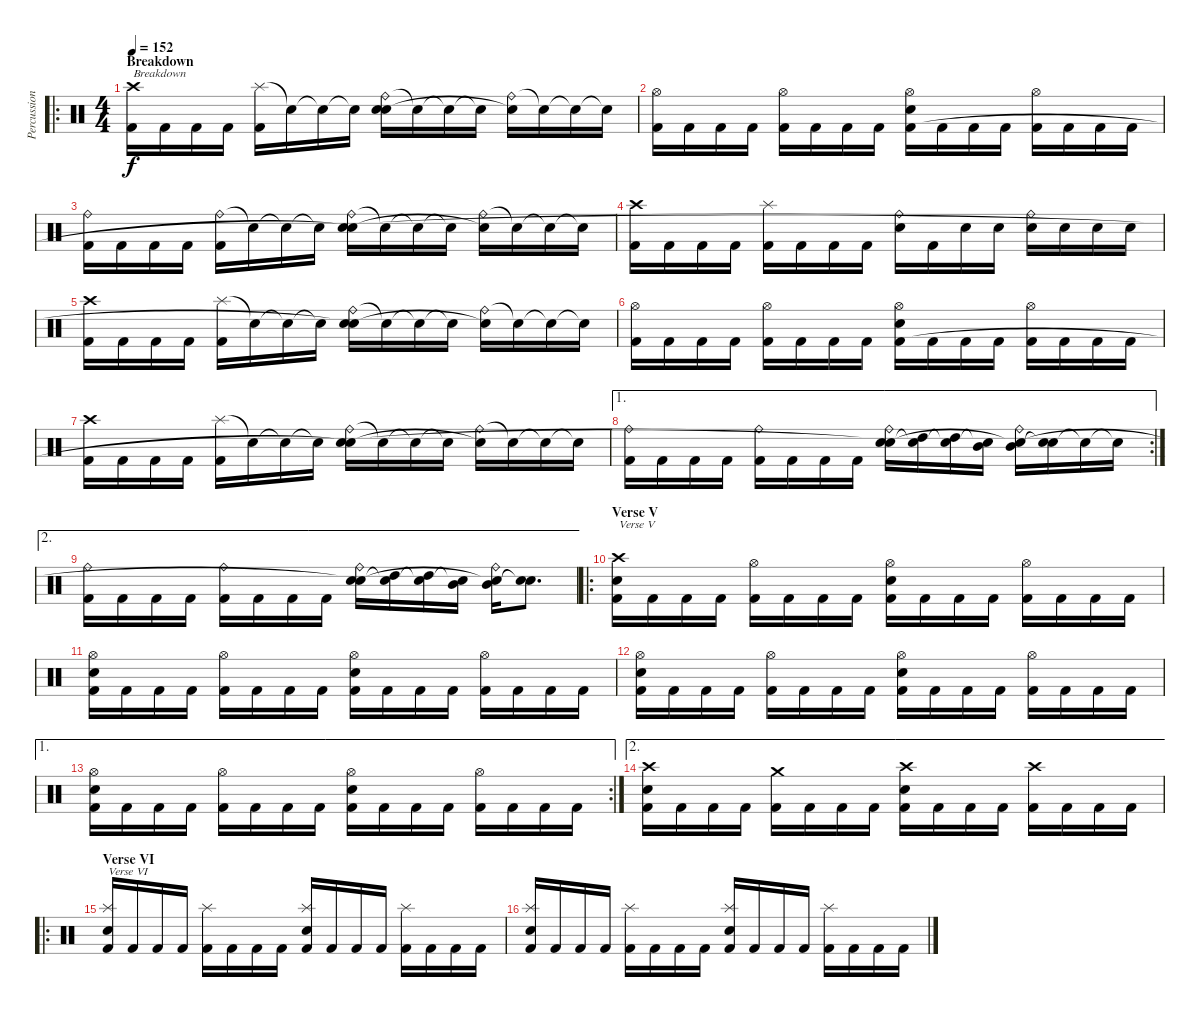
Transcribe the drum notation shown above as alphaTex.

\track ("Percussion" "Percussion") {instrument percussion}
\staff {score}
\articulation defaults
\ro
\ts (4 4)
\section ("" "Breakdown")
\tempo 152
\clef neutral
\ks c
("Crash high (hit)" "Kick (hit) 2").16{txt "Breakdown" dy f} "Kick (hit) 2".16 "Kick (hit) 2".16 "Kick (hit) 2".16 ("Splash (hit)" "Kick (hit) 2").16 "Snare (hit)"{t}.16 "Snare (hit)"{t}.16 "Snare (hit)"{t}.16 ("Ride (bell)" "Electric Snare (hit)" "Snare (hit)"{t}).16 "Snare (hit)"{t}.16 "Snare (hit)"{t}.16 "Snare (hit)"{t}.16 ("Ride (bell)" "Snare (hit)"{t}).16 "Snare (hit)"{t}.16 "Snare (hit)"{t}.16 "Snare (hit)"{t}.16 |
("Hi-Hat (open)" "Kick (hit) 2").16 "Kick (hit) 2".16 "Kick (hit) 2".16 "Kick (hit) 2".16 ("Hi-Hat (open)" "Kick (hit) 2").16 "Kick (hit) 2".16 "Kick (hit) 2".16 "Kick (hit) 2".16 ("Hi-Hat (open)" "Electric Snare (hit)" "Kick (hit) 2").16 "Kick (hit) 2".16 "Kick (hit) 2".16 "Kick (hit) 2".16 ("Hi-Hat (open)" "Kick (hit) 2").16 "Kick (hit) 2".16 "Kick (hit) 2".16 "Kick (hit) 2".16 |
("Ride (bell)" "Kick (hit) 2").16 "Kick (hit) 2".16 "Kick (hit) 2".16 "Kick (hit) 2".16 ("Ride (bell)" "Kick (hit) 2").16 "Snare (hit)"{t}.16 "Snare (hit)"{t}.16 "Snare (hit)"{t}.16 ("Ride (bell)" "Electric Snare (hit)" "Snare (hit)"{t}).16 "Snare (hit)"{t}.16 "Snare (hit)"{t}.16 "Snare (hit)"{t}.16 ("Ride (bell)" "Snare (hit)"{t}).16 "Snare (hit)"{t}.16 "Snare (hit)"{t}.16 "Snare (hit)"{t}.16 |
("Crash high (hit)" "Kick (hit) 2").16 "Kick (hit) 2".16 "Kick (hit) 2".16 "Kick (hit) 2".16 ("Splash (hit)" "Kick (hit) 2").16 "Kick (hit) 2".16 "Kick (hit) 2".16 "Kick (hit) 2".16 ("Ride (bell)" "Electric Snare (hit)").16 "Kick (hit) 2".16 "Electric Snare (hit)".16 "Electric Snare (hit)".16 ("Ride (bell)" "Electric Snare (hit)").16 "Electric Snare (hit)".16 "Electric Snare (hit)".16 "Electric Snare (hit)".16 |
("Crash high (hit)" "Kick (hit) 2").16 "Kick (hit) 2".16 "Kick (hit) 2".16 "Kick (hit) 2".16 ("Splash (hit)" "Kick (hit) 2").16 "Snare (hit)"{t}.16 "Snare (hit)"{t}.16 "Snare (hit)"{t}.16 ("Ride (bell)" "Electric Snare (hit)" "Snare (hit)"{t}).16 "Snare (hit)"{t}.16 "Snare (hit)"{t}.16 "Snare (hit)"{t}.16 ("Ride (bell)" "Snare (hit)"{t}).16 "Snare (hit)"{t}.16 "Snare (hit)"{t}.16 "Snare (hit)"{t}.16 |
("Hi-Hat (open)" "Kick (hit) 2").16 "Kick (hit) 2".16 "Kick (hit) 2".16 "Kick (hit) 2".16 ("Hi-Hat (open)" "Kick (hit) 2").16 "Kick (hit) 2".16 "Kick (hit) 2".16 "Kick (hit) 2".16 ("Hi-Hat (open)" "Electric Snare (hit)" "Kick (hit) 2").16 "Kick (hit) 2".16 "Kick (hit) 2".16 "Kick (hit) 2".16 ("Hi-Hat (open)" "Kick (hit) 2").16 "Kick (hit) 2".16 "Kick (hit) 2".16 "Kick (hit) 2".16 |
("Crash high (hit)" "Kick (hit) 2").16 "Kick (hit) 2".16 "Kick (hit) 2".16 "Kick (hit) 2".16 ("Splash (hit)" "Kick (hit) 2").16 "Snare (hit)"{t}.16 "Snare (hit)"{t}.16 "Snare (hit)"{t}.16 ("Ride (bell)" "Electric Snare (hit)" "Snare (hit)"{t}).16 "Snare (hit)"{t}.16 "Snare (hit)"{t}.16 "Snare (hit)"{t}.16 ("Ride (bell)" "Snare (hit)"{t}).16 "Snare (hit)"{t}.16 "Snare (hit)"{t}.16 "Snare (hit)"{t}.16 |
\ae 1
\rc 2
("Ride (bell)" "Kick (hit) 2").16 "Kick (hit) 2".16 "Kick (hit) 2".16 "Kick (hit) 2".16 ("Ride (bell)" "Kick (hit) 2").16 "Kick (hit) 2".16 "Kick (hit) 2".16 "Kick (hit) 2".16 ("Ride (bell)" "Electric Snare (hit)" "Snare (hit)"{t}).16 ("High Tom (hit)" "Snare (hit)"{t}).16 ("High Tom (hit)" "Snare (hit)"{t}).16 ("Mid Tom (hit)" "Snare (hit)"{t}).16 ("Ride (bell)" "Mid Tom (hit)" "Snare (hit)"{t}).16 ("Electric Snare (hit)" "Snare (hit)"{t}).16 "Snare (hit)"{t}.16 "Snare (hit)"{t}.16 |
\ae 2
("Ride (bell)" "Kick (hit) 2").16 "Kick (hit) 2".16 "Kick (hit) 2".16 "Kick (hit) 2".16 ("Ride (bell)" "Kick (hit) 2").16 "Kick (hit) 2".16 "Kick (hit) 2".16 "Kick (hit) 2".16 ("Ride (bell)" "Electric Snare (hit)" "Snare (hit)"{t}).16 ("High Tom (hit)" "Snare (hit)"{t}).16 ("High Tom (hit)" "Snare (hit)"{t}).16 ("Mid Tom (hit)" "Snare (hit)"{t}).16 ("Ride (bell)" "Mid Tom (hit)" "Snare (hit)"{t}).16 ("Electric Snare (hit)" "Snare (hit)"{t}).8{d} |
\ro
\section ("" "Verse V")
("Crash high (hit)" "Electric Snare (hit)" "Kick (hit) 2").16{txt "Verse V"} "Kick (hit) 2".16 "Kick (hit) 2".16 "Kick (hit) 2".16 ("Hi-Hat (open)" "Kick (hit) 2").16 "Kick (hit) 2".16 "Kick (hit) 2".16 "Kick (hit) 2".16 ("Hi-Hat (open)" "Electric Snare (hit)" "Kick (hit) 2").16 "Kick (hit) 2".16 "Kick (hit) 2".16 "Kick (hit) 2".16 ("Hi-Hat (open)" "Kick (hit) 2").16 "Kick (hit) 2".16 "Kick (hit) 2".16 "Kick (hit) 2".16 |
("Hi-Hat (open)" "Electric Snare (hit)" "Kick (hit) 2").16 "Kick (hit) 2".16 "Kick (hit) 2".16 "Kick (hit) 2".16 ("Hi-Hat (open)" "Kick (hit) 2").16 "Kick (hit) 2".16 "Kick (hit) 2".16 "Kick (hit) 2".16 ("Hi-Hat (open)" "Electric Snare (hit)" "Kick (hit) 2").16 "Kick (hit) 2".16 "Kick (hit) 2".16 "Kick (hit) 2".16 ("Hi-Hat (open)" "Kick (hit) 2").16 "Kick (hit) 2".16 "Kick (hit) 2".16 "Kick (hit) 2".16 |
("Hi-Hat (open)" "Electric Snare (hit)" "Kick (hit) 2").16 "Kick (hit) 2".16 "Kick (hit) 2".16 "Kick (hit) 2".16 ("Hi-Hat (open)" "Kick (hit) 2").16 "Kick (hit) 2".16 "Kick (hit) 2".16 "Kick (hit) 2".16 ("Hi-Hat (open)" "Electric Snare (hit)" "Kick (hit) 2").16 "Kick (hit) 2".16 "Kick (hit) 2".16 "Kick (hit) 2".16 ("Hi-Hat (open)" "Kick (hit) 2").16 "Kick (hit) 2".16 "Kick (hit) 2".16 "Kick (hit) 2".16 |
\ae 1
\rc 2
("Hi-Hat (open)" "Electric Snare (hit)" "Kick (hit) 2").16 "Kick (hit) 2".16 "Kick (hit) 2".16 "Kick (hit) 2".16 ("Hi-Hat (open)" "Kick (hit) 2").16 "Kick (hit) 2".16 "Kick (hit) 2".16 "Kick (hit) 2".16 ("Hi-Hat (open)" "Electric Snare (hit)" "Kick (hit) 2").16 "Kick (hit) 2".16 "Kick (hit) 2".16 "Kick (hit) 2".16 ("Hi-Hat (open)" "Kick (hit) 2").16 "Kick (hit) 2".16 "Kick (hit) 2".16 "Kick (hit) 2".16 |
\ae 2
("Crash high (hit)" "Electric Snare (hit)" "Kick (hit) 2").16 "Kick (hit) 2".16 "Kick (hit) 2".16 "Kick (hit) 2".16 ("Crash medium (hit)" "Kick (hit) 2").16 "Kick (hit) 2".16 "Kick (hit) 2".16 "Kick (hit) 2".16 ("Crash high (hit)" "Electric Snare (hit)" "Kick (hit) 2").16 "Kick (hit) 2".16 "Kick (hit) 2".16 "Kick (hit) 2".16 ("Crash high (hit)" "Kick (hit) 2").16 "Kick (hit) 2".16 "Kick (hit) 2".16 "Kick (hit) 2".16 |
\ro
\section ("" "Verse VI")
("Splash (hit)" "Electric Snare (hit)" "Kick (hit) 2").16{txt "Verse VI"} "Kick (hit) 2".16 "Kick (hit) 2".16 "Kick (hit) 2".16 ("Splash (hit)" "Kick (hit) 2").16 "Kick (hit) 2".16 "Kick (hit) 2".16 "Kick (hit) 2".16 ("Splash (hit)" "Electric Snare (hit)" "Kick (hit) 2").16 "Kick (hit) 2".16 "Kick (hit) 2".16 "Kick (hit) 2".16 ("Splash (hit)" "Kick (hit) 2").16 "Kick (hit) 2".16 "Kick (hit) 2".16 "Kick (hit) 2".16 |
("Splash (hit)" "Electric Snare (hit)" "Kick (hit) 2").16 "Kick (hit) 2".16 "Kick (hit) 2".16 "Kick (hit) 2".16 ("Splash (hit)" "Kick (hit) 2").16 "Kick (hit) 2".16 "Kick (hit) 2".16 "Kick (hit) 2".16 ("Splash (hit)" "Electric Snare (hit)" "Kick (hit) 2").16 "Kick (hit) 2".16 "Kick (hit) 2".16 "Kick (hit) 2".16 ("Splash (hit)" "Kick (hit) 2").16 "Kick (hit) 2".16 "Kick (hit) 2".16 "Kick (hit) 2".16
